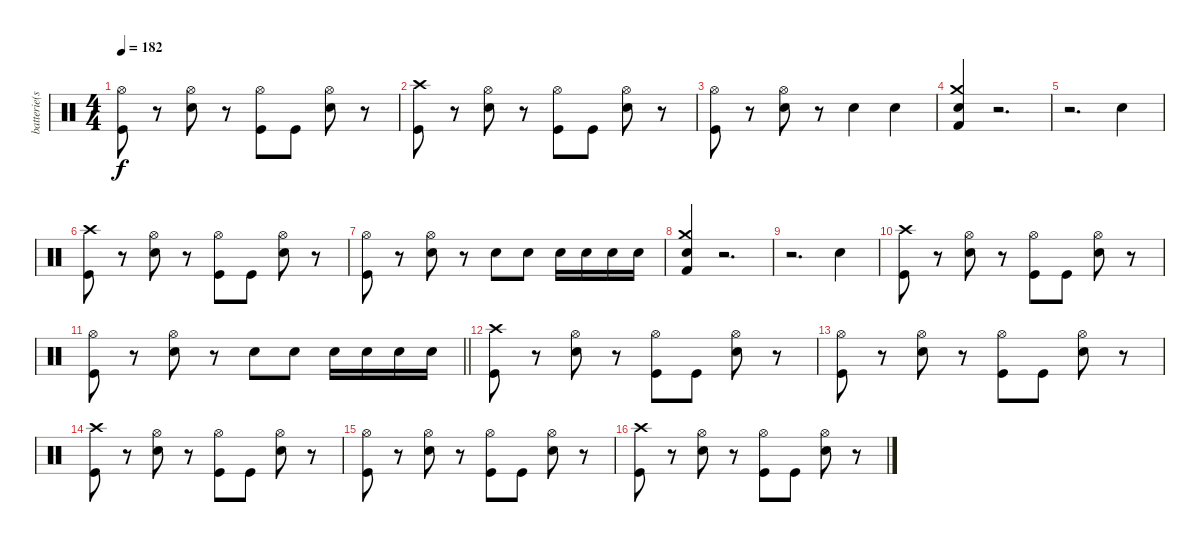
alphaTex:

\track ("batterie(scott)" "batterie(s") {instrument percussion}
\staff {score}
\articulation defaults
\ts (4 4)
\tempo 182
\clef neutral
\ks c
("Hi-Hat (open)" "Kick (hit)").8{dy f} r.8 ("Hi-Hat (open)" "Snare (hit) 2").8 r.8 ("Hi-Hat (open)" "Kick (hit)").8 "Kick (hit)".8 ("Hi-Hat (open)" "Snare (hit) 2").8 r.8 |
("Crash high (hit)" "Kick (hit)").8 r.8 ("Hi-Hat (open)" "Snare (hit) 2").8 r.8 ("Hi-Hat (open)" "Kick (hit)").8 "Kick (hit)".8 ("Hi-Hat (open)" "Snare (hit) 2").8 r.8 |
("Hi-Hat (open)" "Kick (hit)").8 r.8 ("Hi-Hat (open)" "Snare (hit) 2").8 r.8 "Snare (hit) 2".4 "Snare (hit) 2".4 |
("Crash medium (hit)" "Snare (hit) 2" "Kick (hit) 2").4 r.2{d} |
r.2{d} "Snare (hit) 2".4 |
("Crash high (hit)" "Kick (hit)").8 r.8 ("Hi-Hat (open)" "Snare (hit) 2").8 r.8 ("Hi-Hat (open)" "Kick (hit)").8 "Kick (hit)".8 ("Hi-Hat (open)" "Snare (hit) 2").8 r.8 |
("Hi-Hat (open)" "Kick (hit)").8 r.8 ("Hi-Hat (open)" "Snare (hit) 2").8 r.8 "Snare (hit) 2".8 "Snare (hit) 2".8 "Snare (hit) 2".16 "Snare (hit) 2".16 "Snare (hit) 2".16 "Snare (hit) 2".16 |
("Crash medium (hit)" "Snare (hit) 2" "Kick (hit) 2").4 r.2{d} |
r.2{d} "Snare (hit) 2".4 |
("Crash high (hit)" "Kick (hit)").8 r.8 ("Hi-Hat (open)" "Snare (hit) 2").8 r.8 ("Hi-Hat (open)" "Kick (hit)").8 "Kick (hit)".8 ("Hi-Hat (open)" "Snare (hit) 2").8 r.8 |
\barLineRight lightlight
("Hi-Hat (open)" "Kick (hit)").8 r.8 ("Hi-Hat (open)" "Snare (hit) 2").8 r.8 "Snare (hit) 2".8 "Snare (hit) 2".8 "Snare (hit) 2".16 "Snare (hit) 2".16 "Snare (hit) 2".16 "Snare (hit) 2".16 |
("Crash high (hit)" "Kick (hit)").8 r.8 ("Hi-Hat (open)" "Snare (hit) 2").8 r.8 ("Hi-Hat (open)" "Kick (hit)").8 "Kick (hit)".8 ("Hi-Hat (open)" "Snare (hit) 2").8 r.8 |
("Hi-Hat (open)" "Kick (hit)").8 r.8 ("Hi-Hat (open)" "Snare (hit) 2").8 r.8 ("Hi-Hat (open)" "Kick (hit)").8 "Kick (hit)".8 ("Hi-Hat (open)" "Snare (hit) 2").8 r.8 |
("Crash high (hit)" "Kick (hit)").8 r.8 ("Hi-Hat (open)" "Snare (hit) 2").8 r.8 ("Hi-Hat (open)" "Kick (hit)").8 "Kick (hit)".8 ("Hi-Hat (open)" "Snare (hit) 2").8 r.8 |
("Hi-Hat (open)" "Kick (hit)").8 r.8 ("Hi-Hat (open)" "Snare (hit) 2").8 r.8 ("Hi-Hat (open)" "Kick (hit)").8 "Kick (hit)".8 ("Hi-Hat (open)" "Snare (hit) 2").8 r.8 |
("Crash high (hit)" "Kick (hit)").8 r.8 ("Hi-Hat (open)" "Snare (hit) 2").8 r.8 ("Hi-Hat (open)" "Kick (hit)").8 "Kick (hit)".8 ("Hi-Hat (open)" "Snare (hit) 2").8 r.8
